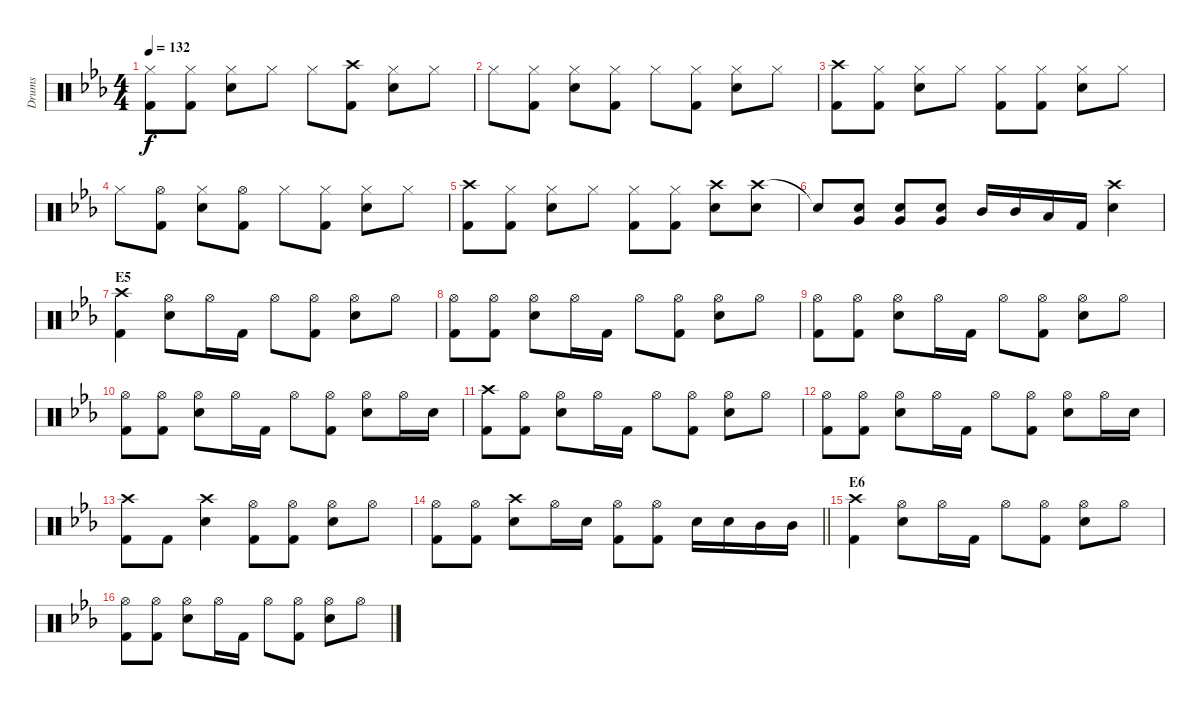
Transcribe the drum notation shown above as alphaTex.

\track ("Drums" "Drums") {instrument percussion}
\staff {score}
\articulation defaults
\ts (4 4)
\tempo 132
\clef neutral
\ks eb
("Hi-Hat (closed)" "Kick (hit) 2").8{dy f} ("Hi-Hat (closed)" "Kick (hit) 2").8 ("Hi-Hat (closed)" "Snare (hit) 2").8 "Hi-Hat (closed)".8 "Hi-Hat (closed)".8 ("Crash high (hit)" "Kick (hit) 2").8 ("Hi-Hat (closed)" "Snare (hit) 2").8 "Hi-Hat (closed)".8 |
"Hi-Hat (closed)".8 ("Hi-Hat (closed)" "Kick (hit) 2").8 ("Hi-Hat (closed)" "Snare (hit) 2").8 ("Hi-Hat (closed)" "Kick (hit) 2").8 "Hi-Hat (closed)".8 ("Hi-Hat (closed)" "Kick (hit) 2").8 ("Hi-Hat (closed)" "Snare (hit) 2").8 "Hi-Hat (closed)".8 |
("Crash high (hit)" "Kick (hit) 2").8 ("Hi-Hat (closed)" "Kick (hit) 2").8 ("Hi-Hat (closed)" "Snare (hit) 2").8 "Hi-Hat (closed)".8 ("Hi-Hat (closed)" "Kick (hit) 2").8 ("Hi-Hat (closed)" "Kick (hit) 2").8 ("Hi-Hat (closed)" "Snare (hit) 2").8 "Hi-Hat (closed)".8 |
"Hi-Hat (closed)".8 ("Hi-Hat (open)" "Kick (hit) 2").8 ("Hi-Hat (closed)" "Snare (hit) 2").8 ("Hi-Hat (open)" "Kick (hit) 2").8 "Hi-Hat (closed)".8 ("Hi-Hat (closed)" "Kick (hit) 2").8 ("Hi-Hat (closed)" "Snare (hit) 2").8 "Hi-Hat (closed)".8 |
("Crash high (hit)" "Kick (hit) 2").8 ("Hi-Hat (closed)" "Kick (hit) 2").8 ("Hi-Hat (closed)" "Snare (hit) 2").8 "Hi-Hat (closed)".8 ("Hi-Hat (closed)" "Kick (hit) 2").8 ("Hi-Hat (closed)" "Kick (hit) 2").8 ("Crash high (hit)" "Snare (hit) 2").8 ("Crash high (hit)" "Snare (hit) 2").8 |
"Snare (hit)"{t}.8 ("Snare (hit) 2" "Very Low Tom (hit)").8 ("Snare (hit) 2" "Very Low Tom (hit)").8 ("Snare (hit) 2" "Very Low Tom (hit)").8 "Mid Tom (hit)".16 "Mid Tom (hit)".16 "Low Tom (hit)".16 "Kick (hit) 2".16 ("Crash high (hit)" "Snare (hit) 2").4 |
\section ("" "E5")
("Crash high (hit)" "Kick (hit) 2").4 ("Hi-Hat (open)" "Snare (hit) 2").8 "Hi-Hat (open)".16 "Kick (hit) 2".16 "Hi-Hat (open)".8 ("Hi-Hat (open)" "Kick (hit) 2").8 ("Hi-Hat (open)" "Snare (hit) 2").8 "Hi-Hat (open)".8 |
("Hi-Hat (open)" "Kick (hit) 2").8 ("Hi-Hat (open)" "Kick (hit) 2").8 ("Hi-Hat (open)" "Snare (hit) 2").8 "Hi-Hat (open)".16 "Kick (hit) 2".16 "Hi-Hat (open)".8 ("Hi-Hat (open)" "Kick (hit) 2").8 ("Hi-Hat (open)" "Snare (hit) 2").8 "Hi-Hat (open)".8 |
("Hi-Hat (open)" "Kick (hit) 2").8 ("Hi-Hat (open)" "Kick (hit) 2").8 ("Hi-Hat (open)" "Snare (hit) 2").8 "Hi-Hat (open)".16 "Kick (hit) 2".16 "Hi-Hat (open)".8 ("Hi-Hat (open)" "Kick (hit) 2").8 ("Hi-Hat (open)" "Snare (hit) 2").8 "Hi-Hat (open)".8 |
("Hi-Hat (open)" "Kick (hit) 2").8 ("Hi-Hat (open)" "Kick (hit) 2").8 ("Hi-Hat (open)" "Snare (hit) 2").8 "Hi-Hat (open)".16 "Kick (hit) 2".16 "Hi-Hat (open)".8 ("Hi-Hat (open)" "Kick (hit) 2").8 ("Hi-Hat (open)" "Snare (hit) 2").8 "Hi-Hat (open)".16 "Snare (hit) 2".16 |
("Crash high (hit)" "Kick (hit) 2").8 ("Hi-Hat (open)" "Kick (hit) 2").8 ("Hi-Hat (open)" "Snare (hit) 2").8 "Hi-Hat (open)".16 "Kick (hit) 2".16 "Hi-Hat (open)".8 ("Hi-Hat (open)" "Kick (hit) 2").8 ("Hi-Hat (open)" "Snare (hit) 2").8 "Hi-Hat (open)".8 |
("Hi-Hat (open)" "Kick (hit) 2").8 ("Hi-Hat (open)" "Kick (hit) 2").8 ("Hi-Hat (open)" "Snare (hit) 2").8 "Hi-Hat (open)".16 "Kick (hit) 2".16 "Hi-Hat (open)".8 ("Hi-Hat (open)" "Kick (hit) 2").8 ("Hi-Hat (open)" "Snare (hit) 2").8 "Hi-Hat (open)".16 "Snare (hit) 2".16 |
("Crash high (hit)" "Kick (hit) 2").8 "Kick (hit) 2".8 ("Crash high (hit)" "Snare (hit) 2").4 ("Hi-Hat (open)" "Kick (hit) 2").8 ("Hi-Hat (open)" "Kick (hit) 2").8 ("Hi-Hat (open)" "Snare (hit) 2").8 "Hi-Hat (open)".8 |
\barLineRight lightlight
("Hi-Hat (open)" "Kick (hit) 2").8 ("Hi-Hat (open)" "Kick (hit) 2").8 ("Crash high (hit)" "Snare (hit) 2").8 "Hi-Hat (open)".16 "Snare (hit) 2".16 ("Hi-Hat (open)" "Kick (hit) 2").8 ("Hi-Hat (open)" "Kick (hit) 2").8 "Snare (hit) 2".16 "Snare (hit) 2".16 "Mid Tom (hit)".16 "Mid Tom (hit)".16 |
\section ("" "E6")
("Crash high (hit)" "Kick (hit) 2").4 ("Hi-Hat (open)" "Snare (hit) 2").8 "Hi-Hat (open)".16 "Kick (hit) 2".16 "Hi-Hat (open)".8 ("Hi-Hat (open)" "Kick (hit) 2").8 ("Hi-Hat (open)" "Snare (hit) 2").8 "Hi-Hat (open)".8 |
("Hi-Hat (open)" "Kick (hit) 2").8 ("Hi-Hat (open)" "Kick (hit) 2").8 ("Hi-Hat (open)" "Snare (hit) 2").8 "Hi-Hat (open)".16 "Kick (hit) 2".16 "Hi-Hat (open)".8 ("Hi-Hat (open)" "Kick (hit) 2").8 ("Hi-Hat (open)" "Snare (hit) 2").8 "Hi-Hat (open)".8
